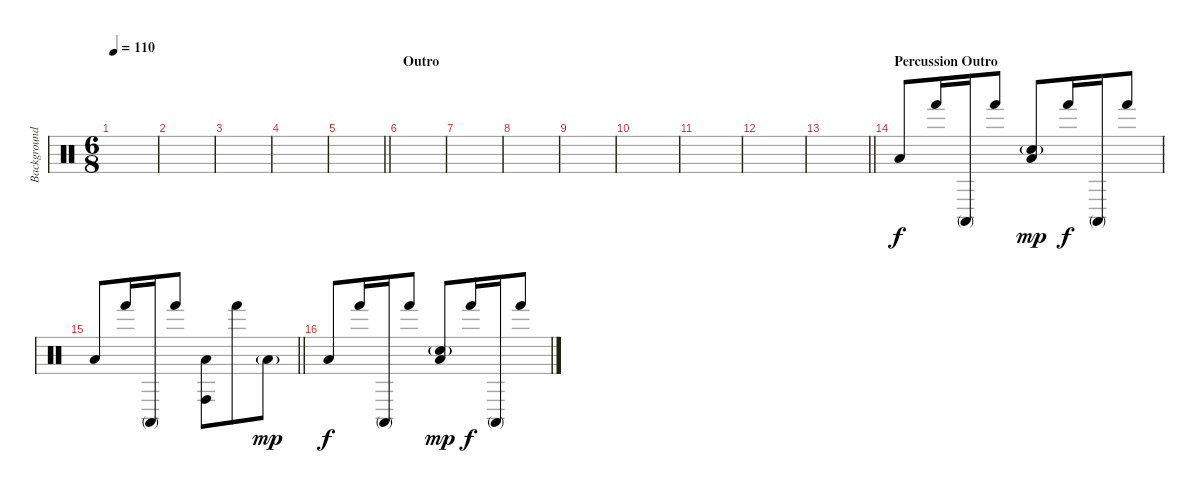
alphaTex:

\track ("Background Percussion" "Background") {instrument percussion}
\staff {score}
\articulation defaults
\ts (6 8)
\tempo 110
\clef neutral
\ks c
|
|
|
|
\barLineRight lightlight
|
\section ("" "Outro")
|
|
|
|
|
|
|
\barLineRight lightlight
|
\section ("" "Percussion Outro")
"Low Tom (hit)".8 "Hand (hit)".16 "Conga high (mute)".16 "Hand (hit)".8 ("Snare (hit) 2"{g} "Low Tom (hit)").8{dy mp} "Hand (hit)".16{dy f} "Conga high (mute)".16 "Hand (hit)".8 |
\barLineRight lightlight "Low Tom (hit)".8 "Hand (hit)".16 "Conga high (mute)".16 "Hand (hit)".8
("Conga high (hit)" "Low Tom (hit)").8 "Hand (hit)".8 "Low Tom (hit)"{g}.8{dy mp} |
"Low Tom (hit)".8{dy f} "Hand (hit)".16 "Conga high (mute)".16 "Hand (hit)".8 ("Snare (hit) 2"{g} "Low Tom (hit)").8{dy mp} "Hand (hit)".16{dy f} "Conga high (mute)".16 "Hand (hit)".8
